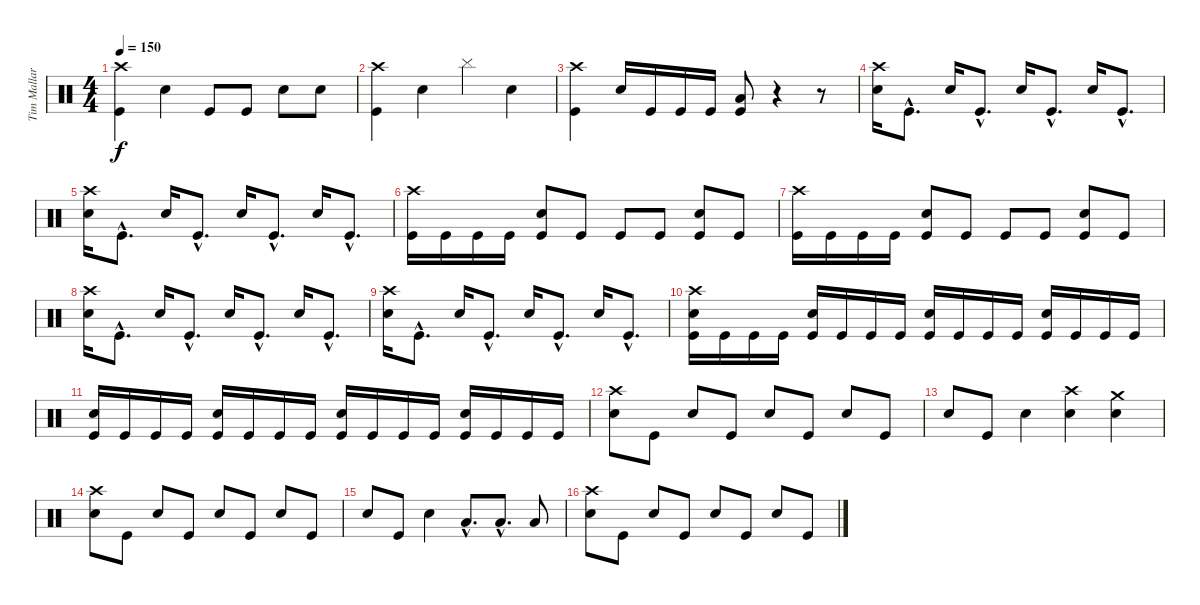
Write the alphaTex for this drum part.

\track ("Tim Mallare-Drums" "Tim Mallar") {instrument percussion}
\staff {score}
\articulation defaults
\ts (4 4)
\tempo 150
\clef neutral
\ks c
("Crash high (hit)" "Kick (hit)").4{dy f} "Electric Snare (hit)".4 "Kick (hit)".8 "Kick (hit)".8 "Electric Snare (hit)".8 "Electric Snare (hit)".8 |
("Crash high (hit)" "Kick (hit)").4 "Electric Snare (hit)".4 "Cymbal (hit)".4 "Electric Snare (hit)".4 |
("Crash high (hit)" "Kick (hit)").4 "Electric Snare (hit)".16 "Kick (hit)".16 "Kick (hit)".16 "Kick (hit)".16 ("Low Tom (hit)" "Kick (hit)").8 r.4 r.8 |
("Crash high (hit)" "Electric Snare (hit)").16 "Kick (hit)"{hac}.8{d} "Electric Snare (hit)".16 "Kick (hit)"{hac}.8{d} "Electric Snare (hit)".16 "Kick (hit)"{hac}.8{d} "Electric Snare (hit)".16 "Kick (hit)"{hac}.8{d} |
("Crash high (hit)" "Electric Snare (hit)").16 "Kick (hit)"{hac}.8{d} "Electric Snare (hit)".16 "Kick (hit)"{hac}.8{d} "Electric Snare (hit)".16 "Kick (hit)"{hac}.8{d} "Electric Snare (hit)".16 "Kick (hit)"{hac}.8{d} |
("Crash high (hit)" "Kick (hit)").16 "Kick (hit)".16 "Kick (hit)".16 "Kick (hit)".16 ("Electric Snare (hit)" "Kick (hit)").8 "Kick (hit)".8 "Kick (hit)".8 "Kick (hit)".8 ("Electric Snare (hit)" "Kick (hit)").8 "Kick (hit)".8 |
("Crash high (hit)" "Kick (hit)").16 "Kick (hit)".16 "Kick (hit)".16 "Kick (hit)".16 ("Electric Snare (hit)" "Kick (hit)").8 "Kick (hit)".8 "Kick (hit)".8 "Kick (hit)".8 ("Electric Snare (hit)" "Kick (hit)").8 "Kick (hit)".8 |
("Crash high (hit)" "Electric Snare (hit)").16 "Kick (hit)"{hac}.8{d} "Electric Snare (hit)".16 "Kick (hit)"{hac}.8{d} "Electric Snare (hit)".16 "Kick (hit)"{hac}.8{d} "Electric Snare (hit)".16 "Kick (hit)"{hac}.8{d} |
("Crash high (hit)" "Electric Snare (hit)").16 "Kick (hit)"{hac}.8{d} "Electric Snare (hit)".16 "Kick (hit)"{hac}.8{d} "Electric Snare (hit)".16 "Kick (hit)"{hac}.8{d} "Electric Snare (hit)".16 "Kick (hit)"{hac}.8{d} |
("Crash high (hit)" "Electric Snare (hit)" "Kick (hit)").16 "Kick (hit)".16 "Kick (hit)".16 "Kick (hit)".16 ("Electric Snare (hit)" "Kick (hit)").16 "Kick (hit)".16 "Kick (hit)".16 "Kick (hit)".16 ("Electric Snare (hit)" "Kick (hit)").16 "Kick (hit)".16 "Kick (hit)".16 "Kick (hit)".16 ("Electric Snare (hit)" "Kick (hit)").16 "Kick (hit)".16 "Kick (hit)".16 "Kick (hit)".16 |
("Electric Snare (hit)" "Kick (hit)").16 "Kick (hit)".16 "Kick (hit)".16 "Kick (hit)".16 ("Electric Snare (hit)" "Kick (hit)").16 "Kick (hit)".16 "Kick (hit)".16 "Kick (hit)".16 ("Electric Snare (hit)" "Kick (hit)").16 "Kick (hit)".16 "Kick (hit)".16 "Kick (hit)".16 ("Electric Snare (hit)" "Kick (hit)").16 "Kick (hit)".16 "Kick (hit)".16 "Kick (hit)".16 |
("Crash high (hit)" "Electric Snare (hit)").8 "Kick (hit)".8 "Electric Snare (hit)".8 "Kick (hit)".8 "Electric Snare (hit)".8 "Kick (hit)".8 "Electric Snare (hit)".8 "Kick (hit)".8 |
"Electric Snare (hit)".8 "Kick (hit)".8 "Electric Snare (hit)".4 ("Crash high (hit)" "Electric Snare (hit)").4 ("Crash medium (hit)" "Electric Snare (hit)").4 |
("Crash high (hit)" "Electric Snare (hit)").8 "Kick (hit)".8 "Electric Snare (hit)".8 "Kick (hit)".8 "Electric Snare (hit)".8 "Kick (hit)".8 "Electric Snare (hit)".8 "Kick (hit)".8 |
"Electric Snare (hit)".8 "Kick (hit)".8 "Electric Snare (hit)".4 "Low Tom (hit)"{hac}.8{d} "Low Tom (hit)"{hac}.8{d} "Low Tom (hit)".8 |
("Crash high (hit)" "Electric Snare (hit)").8 "Kick (hit)".8 "Electric Snare (hit)".8 "Kick (hit)".8 "Electric Snare (hit)".8 "Kick (hit)".8 "Electric Snare (hit)".8 "Kick (hit)".8
